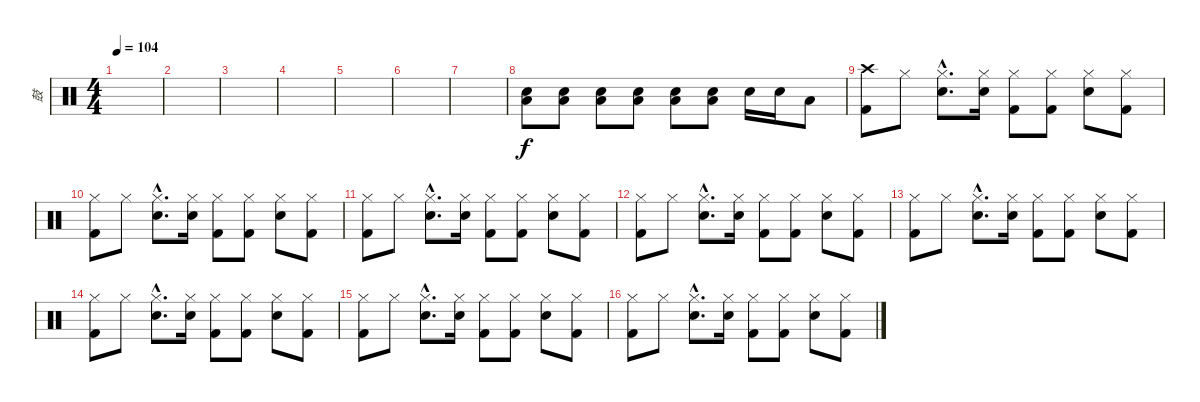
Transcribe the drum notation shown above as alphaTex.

\track ("鼓" "鼓") {instrument percussion}
\staff {score}
\articulation defaults
\ts (4 4)
\tempo 104
\clef neutral
\ks c
|
|
|
|
|
|
|
("Electric Snare (hit)" "Low Floor Tom (hit)").8 ("Electric Snare (hit)" "Low Floor Tom (hit)").8 ("Electric Snare (hit)" "Low Floor Tom (hit)").8 ("Electric Snare (hit)" "Low Floor Tom (hit)").8 ("Electric Snare (hit)" "Low Floor Tom (hit)").8 ("Electric Snare (hit)" "Low Floor Tom (hit)").8 "Electric Snare (hit)".16 "Electric Snare (hit)".16 "Low Tom (hit)".8 |
("Crash high (hit)" "Kick (hit) 2").8 "Hi-Hat (closed)".8 ("Hi-Hat (closed)"{hac} "Snare (hit) 2"{hac}).8{d} ("Hi-Hat (closed)" "Snare (hit) 2").16 ("Hi-Hat (closed)" "Kick (hit) 2").8 ("Hi-Hat (closed)" "Kick (hit) 2").8 ("Hi-Hat (closed)" "Snare (hit) 2").8 ("Hi-Hat (closed)" "Kick (hit) 2").8 |
("Hi-Hat (closed)" "Kick (hit) 2").8 "Hi-Hat (closed)".8 ("Hi-Hat (closed)"{hac} "Snare (hit) 2"{hac}).8{d} ("Hi-Hat (closed)" "Snare (hit) 2").16 ("Hi-Hat (closed)" "Kick (hit) 2").8 ("Hi-Hat (closed)" "Kick (hit) 2").8 ("Hi-Hat (closed)" "Snare (hit) 2").8 ("Hi-Hat (closed)" "Kick (hit) 2").8 |
("Hi-Hat (closed)" "Kick (hit) 2").8 "Hi-Hat (closed)".8 ("Hi-Hat (closed)"{hac} "Snare (hit) 2"{hac}).8{d} ("Hi-Hat (closed)" "Snare (hit) 2").16 ("Hi-Hat (closed)" "Kick (hit) 2").8 ("Hi-Hat (closed)" "Kick (hit) 2").8 ("Hi-Hat (closed)" "Snare (hit) 2").8 ("Hi-Hat (closed)" "Kick (hit) 2").8 |
("Hi-Hat (closed)" "Kick (hit) 2").8 "Hi-Hat (closed)".8 ("Hi-Hat (closed)"{hac} "Snare (hit) 2"{hac}).8{d} ("Hi-Hat (closed)" "Snare (hit) 2").16 ("Hi-Hat (closed)" "Kick (hit) 2").8 ("Hi-Hat (closed)" "Kick (hit) 2").8 ("Hi-Hat (closed)" "Snare (hit) 2").8 ("Hi-Hat (closed)" "Kick (hit) 2").8 |
("Hi-Hat (closed)" "Kick (hit) 2").8 "Hi-Hat (closed)".8 ("Hi-Hat (closed)"{hac} "Snare (hit) 2"{hac}).8{d} ("Hi-Hat (closed)" "Snare (hit) 2").16 ("Hi-Hat (closed)" "Kick (hit) 2").8 ("Hi-Hat (closed)" "Kick (hit) 2").8 ("Hi-Hat (closed)" "Snare (hit) 2").8 ("Hi-Hat (closed)" "Kick (hit) 2").8 |
("Hi-Hat (closed)" "Kick (hit) 2").8 "Hi-Hat (closed)".8 ("Hi-Hat (closed)"{hac} "Snare (hit) 2"{hac}).8{d} ("Hi-Hat (closed)" "Snare (hit) 2").16 ("Hi-Hat (closed)" "Kick (hit) 2").8 ("Hi-Hat (closed)" "Kick (hit) 2").8 ("Hi-Hat (closed)" "Snare (hit) 2").8 ("Hi-Hat (closed)" "Kick (hit) 2").8 |
("Hi-Hat (closed)" "Kick (hit) 2").8 "Hi-Hat (closed)".8 ("Hi-Hat (closed)"{hac} "Snare (hit) 2"{hac}).8{d} ("Hi-Hat (closed)" "Snare (hit) 2").16 ("Hi-Hat (closed)" "Kick (hit) 2").8 ("Hi-Hat (closed)" "Kick (hit) 2").8 ("Hi-Hat (closed)" "Snare (hit) 2").8 ("Hi-Hat (closed)" "Kick (hit) 2").8 |
("Hi-Hat (closed)" "Kick (hit) 2").8 "Hi-Hat (closed)".8 ("Hi-Hat (closed)"{hac} "Snare (hit) 2"{hac}).8{d} ("Hi-Hat (closed)" "Snare (hit) 2").16 ("Hi-Hat (closed)" "Kick (hit) 2").8 ("Hi-Hat (closed)" "Kick (hit) 2").8 ("Hi-Hat (closed)" "Snare (hit) 2").8 ("Hi-Hat (closed)" "Kick (hit) 2").8
